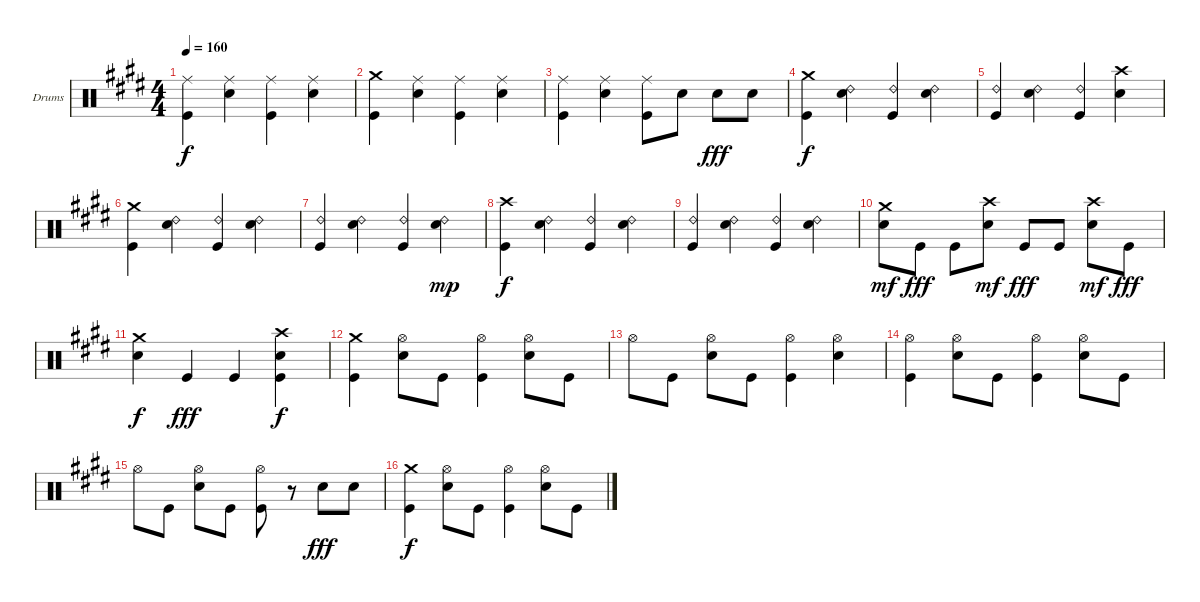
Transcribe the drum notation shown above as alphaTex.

\bracketExtendMode groupsimilarinstruments
\firstSystemTrackNameOrientation horizontal
\otherSystemsTrackNameOrientation horizontal
\track ("Drumkit" "Drums") {instrument percussion}
\staff {score}
\articulation defaults
\ts (4 4)
\tempo 160
\clef neutral
\ks e
("Ride (middle)" "Kick (hit)").4{dy f} ("Ride (middle)" "Snare (hit) 2").4 ("Ride (middle)" "Kick (hit)").4 ("Ride (middle)" "Snare (hit) 2").4 |
("Crash medium (hit)" "Kick (hit)").4 ("Ride (middle)" "Snare (hit) 2").4 ("Ride (middle)" "Kick (hit)").4 ("Ride (middle)" "Snare (hit) 2").4 |
("Ride (middle)" "Kick (hit)").4 ("Ride (middle)" "Snare (hit) 2").4 ("Ride (middle)" "Kick (hit)").8 "Snare (hit) 2".8 "Snare (hit) 2".8{dy fff} "Snare (hit) 2".8 |
("Crash medium (hit)" "Kick (hit)").4{dy f} ("Ride (bell) 2" "Snare (hit) 2").4 ("Ride (bell) 2" "Kick (hit)").4 ("Ride (bell) 2" "Snare (hit) 2").4 |
("Ride (bell) 2" "Kick (hit)").4 ("Ride (bell) 2" "Snare (hit) 2").4 ("Ride (bell) 2" "Kick (hit)").4 ("Crash high (hit)" "Snare (hit) 2").4 |
("Crash medium (hit)" "Kick (hit)").4 ("Ride (bell) 2" "Snare (hit) 2").4 ("Ride (bell) 2" "Kick (hit)").4 ("Ride (bell) 2" "Snare (hit) 2").4 |
("Ride (bell) 2" "Kick (hit)").4 ("Ride (bell) 2" "Snare (hit) 2").4 ("Ride (bell) 2" "Kick (hit)").4 ("Ride (bell) 2" "Snare (hit) 2").4{dy mp} |
("Crash high (hit)" "Kick (hit)").4{dy f} ("Ride (bell) 2" "Snare (hit) 2").4 ("Ride (bell) 2" "Kick (hit)").4 ("Ride (bell) 2" "Snare (hit) 2").4 |
("Ride (bell) 2" "Kick (hit)").4 ("Ride (bell) 2" "Snare (hit) 2").4 ("Ride (bell) 2" "Kick (hit)").4 ("Ride (bell) 2" "Snare (hit) 2").4 |
("Crash medium (hit)" "Snare (hit) 2").8{dy mf} "Kick (hit)".8{dy fff} "Kick (hit)".8 ("Crash high (hit)" "Snare (hit) 2").8{dy mf} "Kick (hit)".8{dy fff} "Kick (hit)".8 ("Crash high (hit)" "Snare (hit) 2").8{dy mf} "Kick (hit)".8{dy fff} |
("Crash medium (hit)" "Snare (hit) 2").4{dy f} "Kick (hit)".4{dy fff} "Kick (hit)".4 ("Crash high (hit)" "Snare (hit) 2" "Kick (hit)").4{dy f} |
("Crash medium (hit)" "Kick (hit)").4 ("Hi-Hat (open)" "Snare (hit) 2").8 "Kick (hit)".8 ("Hi-Hat (open)" "Kick (hit)").4 ("Hi-Hat (open)" "Snare (hit) 2").8 "Kick (hit)".8 |
"Hi-Hat (open)".8 "Kick (hit)".8 ("Hi-Hat (open)" "Snare (hit) 2").8 "Kick (hit)".8 ("Hi-Hat (open)" "Kick (hit)").4 ("Hi-Hat (open)" "Snare (hit) 2").4 |
("Hi-Hat (open)" "Kick (hit)").4 ("Hi-Hat (open)" "Snare (hit) 2").8 "Kick (hit)".8 ("Hi-Hat (open)" "Kick (hit)").4 ("Hi-Hat (open)" "Snare (hit) 2").8 "Kick (hit)".8 |
"Hi-Hat (open)".8 "Kick (hit)".8 ("Hi-Hat (open)" "Snare (hit) 2").8 "Kick (hit)".8 ("Hi-Hat (open)" "Kick (hit)").8 r.8 "Snare (hit) 2".8{dy fff} "Snare (hit) 2".8 |
("Crash medium (hit)" "Kick (hit)").4{dy f} ("Hi-Hat (open)" "Snare (hit) 2").8 "Kick (hit)".8 ("Hi-Hat (open)" "Kick (hit)").4 ("Hi-Hat (open)" "Snare (hit) 2").8 "Kick (hit)".8
